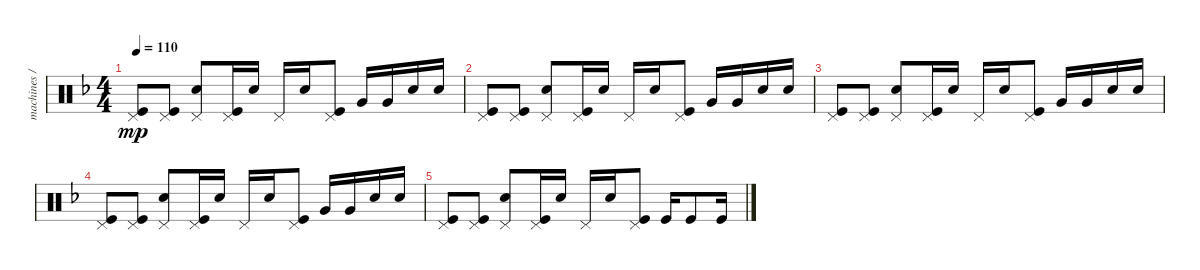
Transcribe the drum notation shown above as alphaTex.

\track ("machines / drum" "machines /") {instrument percussion}
\staff {score}
\articulation defaults
\ts (4 4)
\tempo 110
\clef neutral
\ks f
("Pedal Hi-Hat (hit)" "Kick (hit)").8{dy mp} ("Pedal Hi-Hat (hit)" "Kick (hit)").8 ("Pedal Hi-Hat (hit)" "Electric Snare (hit)").8 ("Pedal Hi-Hat (hit)" "Kick (hit)").16 "Electric Snare (hit)".16 "Pedal Hi-Hat (hit)".16 "Electric Snare (hit)".16 ("Pedal Hi-Hat (hit)" "Kick (hit)").8 "Very Low Tom (hit)".16 "Very Low Tom (hit)".16 "Electric Snare (hit)".16 "Electric Snare (hit)".16 |
("Pedal Hi-Hat (hit)" "Kick (hit)").8 ("Pedal Hi-Hat (hit)" "Kick (hit)").8 ("Pedal Hi-Hat (hit)" "Electric Snare (hit)").8 ("Pedal Hi-Hat (hit)" "Kick (hit)").16 "Electric Snare (hit)".16 "Pedal Hi-Hat (hit)".16 "Electric Snare (hit)".16 ("Pedal Hi-Hat (hit)" "Kick (hit)").8 "Very Low Tom (hit)".16 "Very Low Tom (hit)".16 "Electric Snare (hit)".16 "Electric Snare (hit)".16 |
("Pedal Hi-Hat (hit)" "Kick (hit)").8 ("Pedal Hi-Hat (hit)" "Kick (hit)").8 ("Pedal Hi-Hat (hit)" "Electric Snare (hit)").8 ("Pedal Hi-Hat (hit)" "Kick (hit)").16 "Electric Snare (hit)".16 "Pedal Hi-Hat (hit)".16 "Electric Snare (hit)".16 ("Pedal Hi-Hat (hit)" "Kick (hit)").8 "Very Low Tom (hit)".16 "Very Low Tom (hit)".16 "Electric Snare (hit)".16 "Electric Snare (hit)".16 |
("Pedal Hi-Hat (hit)" "Kick (hit)").8 ("Pedal Hi-Hat (hit)" "Kick (hit)").8 ("Pedal Hi-Hat (hit)" "Electric Snare (hit)").8 ("Pedal Hi-Hat (hit)" "Kick (hit)").16 "Electric Snare (hit)".16 "Pedal Hi-Hat (hit)".16 "Electric Snare (hit)".16 ("Pedal Hi-Hat (hit)" "Kick (hit)").8 "Very Low Tom (hit)".16 "Very Low Tom (hit)".16 "Electric Snare (hit)".16 "Electric Snare (hit)".16 |
("Pedal Hi-Hat (hit)" "Kick (hit)").8 ("Pedal Hi-Hat (hit)" "Kick (hit)").8 ("Pedal Hi-Hat (hit)" "Electric Snare (hit)").8 ("Pedal Hi-Hat (hit)" "Kick (hit)").16 "Electric Snare (hit)".16 "Pedal Hi-Hat (hit)".16 "Electric Snare (hit)".16 ("Pedal Hi-Hat (hit)" "Kick (hit)").8 "Kick (hit)".16 "Kick (hit)".8 "Kick (hit)".16
